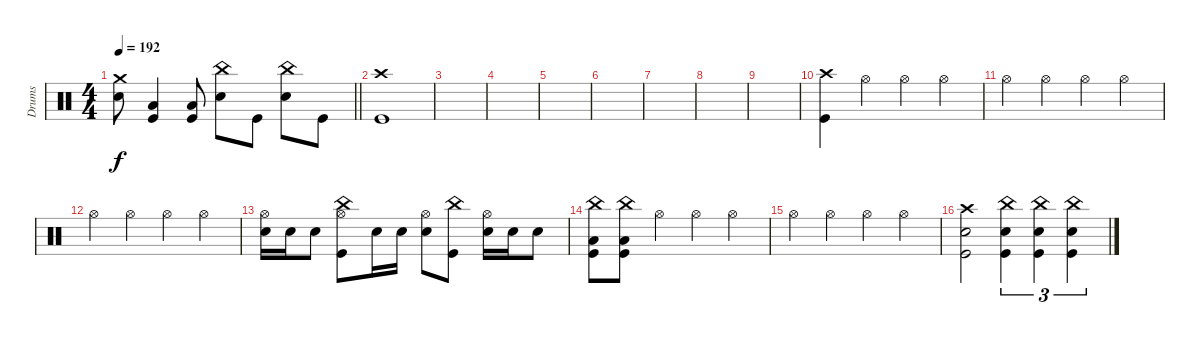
\track ("Drums" "Drums") {instrument percussion}
\staff
\articulation defaults
\ts (4 4)
\tempo 192
\clef neutral
\barLineRight lightlight
\ks c
("Crash medium (hit)" "Electric Snare (hit)").8{dy f} ("Low Floor Tom (hit)" "Kick (hit)").4 ("Low Floor Tom (hit)" "Kick (hit)").8 ("China (hit)" "Electric Snare (hit)").8 "Kick (hit)".8 ("China (hit)" "Electric Snare (hit)").8 "Kick (hit)".8 |
\section ("" "")
("Crash high (hit)" "Kick (hit)").1 |
|
|
|
|
|
|
|
("Crash high (hit)" "Kick (hit)").4 "Hi-Hat (open)".4 "Hi-Hat (open)".4 "Hi-Hat (open)".4 |
"Hi-Hat (open)".4 "Hi-Hat (open)".4 "Hi-Hat (open)".4 "Hi-Hat (open)".4 |
"Hi-Hat (open)".4 "Hi-Hat (open)".4 "Hi-Hat (open)".4 "Hi-Hat (open)".4 |
("Hi-Hat (open)" "Electric Snare (hit)").16 "Electric Snare (hit)".16 "Electric Snare (hit)".8 ("China (hit)" "Hi-Hat (open)" "Kick (hit)").8 "Electric Snare (hit)".16 "Electric Snare (hit)".16 ("Hi-Hat (open)" "Electric Snare (hit)").8 ("China (hit)" "Kick (hit)").8 ("Hi-Hat (open)" "Electric Snare (hit)").16 "Electric Snare (hit)".16 "Electric Snare (hit)".8 |
("China (hit)" "Low Floor Tom (hit)" "Kick (hit)").8 ("China (hit)" "Low Floor Tom (hit)" "Kick (hit)").8 "Hi-Hat (open)".4 "Hi-Hat (open)".4 "Hi-Hat (open)".4 |
"Hi-Hat (open)".4 "Hi-Hat (open)".4 "Hi-Hat (open)".4 "Hi-Hat (open)".4 |
("Crash high (hit)" "Electric Snare (hit)" "Kick (hit)").2 ("China (hit)" "Electric Snare (hit)" "Kick (hit)").4{tu (3 2)} ("China (hit)" "Electric Snare (hit)" "Kick (hit)").4{tu (3 2)} ("China (hit)" "Electric Snare (hit)" "Kick (hit)").4{tu (3 2)}
